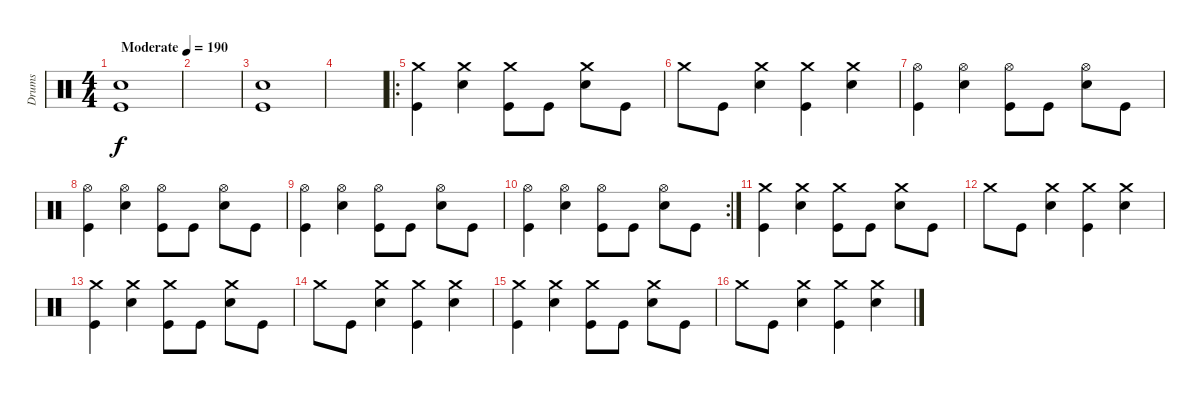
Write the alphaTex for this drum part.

\track ("Drums" "Drums") {instrument percussion}
\staff {score}
\articulation defaults
\ts (4 4)
\tempo (190 "Moderate")
\clef neutral
\ks c
("Snare (hit) 2" "Kick (hit)").1{dy f} |
|
("Snare (hit) 2" "Kick (hit)").1 |
|
\ro
("Crash medium (hit)" "Kick (hit)").4 ("Crash medium (hit)" "Snare (hit) 2").4 ("Crash medium (hit)" "Kick (hit)").8 "Kick (hit)".8 ("Crash medium (hit)" "Snare (hit) 2").8 "Kick (hit)".8 |
"Crash medium (hit)".8 "Kick (hit)".8 ("Crash medium (hit)" "Snare (hit) 2").4 ("Crash medium (hit)" "Kick (hit)").4 ("Crash medium (hit)" "Snare (hit) 2").4 |
("Hi-Hat (open)" "Kick (hit)").4 ("Hi-Hat (open)" "Snare (hit) 2").4 ("Hi-Hat (open)" "Kick (hit)").8 "Kick (hit)".8 ("Hi-Hat (open)" "Snare (hit) 2").8 "Kick (hit)".8 |
("Hi-Hat (open)" "Kick (hit)").4 ("Hi-Hat (open)" "Snare (hit) 2").4 ("Hi-Hat (open)" "Kick (hit)").8 "Kick (hit)".8 ("Hi-Hat (open)" "Snare (hit) 2").8 "Kick (hit)".8 |
("Hi-Hat (open)" "Kick (hit)").4 ("Hi-Hat (open)" "Snare (hit) 2").4 ("Hi-Hat (open)" "Kick (hit)").8 "Kick (hit)".8 ("Hi-Hat (open)" "Snare (hit) 2").8 "Kick (hit)".8 |
\rc 2
("Hi-Hat (open)" "Kick (hit)").4 ("Hi-Hat (open)" "Snare (hit) 2").4 ("Hi-Hat (open)" "Kick (hit)").8 "Kick (hit)".8 ("Hi-Hat (open)" "Snare (hit) 2").8 "Kick (hit)".8 |
("Crash medium (hit)" "Kick (hit)").4 ("Crash medium (hit)" "Snare (hit) 2").4 ("Crash medium (hit)" "Kick (hit)").8 "Kick (hit)".8 ("Crash medium (hit)" "Snare (hit) 2").8 "Kick (hit)".8 |
"Crash medium (hit)".8 "Kick (hit)".8 ("Crash medium (hit)" "Snare (hit) 2").4 ("Crash medium (hit)" "Kick (hit)").4 ("Crash medium (hit)" "Snare (hit) 2").4 |
("Crash medium (hit)" "Kick (hit)").4 ("Crash medium (hit)" "Snare (hit) 2").4 ("Crash medium (hit)" "Kick (hit)").8 "Kick (hit)".8 ("Crash medium (hit)" "Snare (hit) 2").8 "Kick (hit)".8 |
"Crash medium (hit)".8 "Kick (hit)".8 ("Crash medium (hit)" "Snare (hit) 2").4 ("Crash medium (hit)" "Kick (hit)").4 ("Crash medium (hit)" "Snare (hit) 2").4 |
("Crash medium (hit)" "Kick (hit)").4 ("Crash medium (hit)" "Snare (hit) 2").4 ("Crash medium (hit)" "Kick (hit)").8 "Kick (hit)".8 ("Crash medium (hit)" "Snare (hit) 2").8 "Kick (hit)".8 |
"Crash medium (hit)".8 "Kick (hit)".8 ("Crash medium (hit)" "Snare (hit) 2").4 ("Crash medium (hit)" "Kick (hit)").4 ("Crash medium (hit)" "Snare (hit) 2").4
